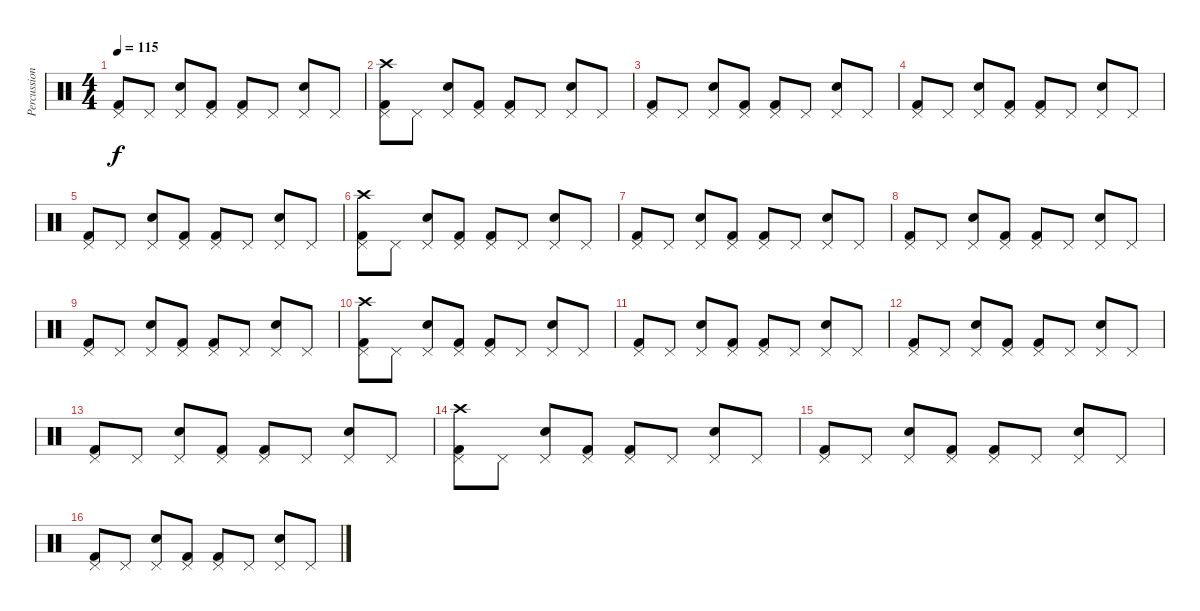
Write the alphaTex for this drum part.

\track ("Percussion" "Percussion") {instrument percussion}
\staff {score}
\articulation defaults
\ts (4 4)
\tempo 115
\clef neutral
\ks c
("Pedal Hi-Hat (hit)" "Kick (hit) 2").8{dy f} "Pedal Hi-Hat (hit)".8 ("Pedal Hi-Hat (hit)" "Snare (hit) 2").8 ("Pedal Hi-Hat (hit)" "Kick (hit) 2").8 ("Pedal Hi-Hat (hit)" "Kick (hit) 2").8 "Pedal Hi-Hat (hit)".8 ("Pedal Hi-Hat (hit)" "Snare (hit) 2").8 "Pedal Hi-Hat (hit)".8 |
("Crash high (hit)" "Pedal Hi-Hat (hit)" "Kick (hit) 2").8 "Pedal Hi-Hat (hit)".8 ("Pedal Hi-Hat (hit)" "Snare (hit) 2").8 ("Pedal Hi-Hat (hit)" "Kick (hit) 2").8 ("Pedal Hi-Hat (hit)" "Kick (hit) 2").8 "Pedal Hi-Hat (hit)".8 ("Pedal Hi-Hat (hit)" "Snare (hit) 2").8 "Pedal Hi-Hat (hit)".8 |
("Pedal Hi-Hat (hit)" "Kick (hit) 2").8 "Pedal Hi-Hat (hit)".8 ("Pedal Hi-Hat (hit)" "Snare (hit) 2").8 ("Pedal Hi-Hat (hit)" "Kick (hit) 2").8 ("Pedal Hi-Hat (hit)" "Kick (hit) 2").8 "Pedal Hi-Hat (hit)".8 ("Pedal Hi-Hat (hit)" "Snare (hit) 2").8 "Pedal Hi-Hat (hit)".8 |
("Pedal Hi-Hat (hit)" "Kick (hit) 2").8 "Pedal Hi-Hat (hit)".8 ("Pedal Hi-Hat (hit)" "Snare (hit) 2").8 ("Pedal Hi-Hat (hit)" "Kick (hit) 2").8 ("Pedal Hi-Hat (hit)" "Kick (hit) 2").8 "Pedal Hi-Hat (hit)".8 ("Pedal Hi-Hat (hit)" "Snare (hit) 2").8 "Pedal Hi-Hat (hit)".8 |
("Pedal Hi-Hat (hit)" "Kick (hit) 2").8 "Pedal Hi-Hat (hit)".8 ("Pedal Hi-Hat (hit)" "Snare (hit) 2").8 ("Pedal Hi-Hat (hit)" "Kick (hit) 2").8 ("Pedal Hi-Hat (hit)" "Kick (hit) 2").8 "Pedal Hi-Hat (hit)".8 ("Pedal Hi-Hat (hit)" "Snare (hit) 2").8 "Pedal Hi-Hat (hit)".8 |
("Crash high (hit)" "Pedal Hi-Hat (hit)" "Kick (hit) 2").8 "Pedal Hi-Hat (hit)".8 ("Pedal Hi-Hat (hit)" "Snare (hit) 2").8 ("Pedal Hi-Hat (hit)" "Kick (hit) 2").8 ("Pedal Hi-Hat (hit)" "Kick (hit) 2").8 "Pedal Hi-Hat (hit)".8 ("Pedal Hi-Hat (hit)" "Snare (hit) 2").8 "Pedal Hi-Hat (hit)".8 |
("Pedal Hi-Hat (hit)" "Kick (hit) 2").8 "Pedal Hi-Hat (hit)".8 ("Pedal Hi-Hat (hit)" "Snare (hit) 2").8 ("Pedal Hi-Hat (hit)" "Kick (hit) 2").8 ("Pedal Hi-Hat (hit)" "Kick (hit) 2").8 "Pedal Hi-Hat (hit)".8 ("Pedal Hi-Hat (hit)" "Snare (hit) 2").8 "Pedal Hi-Hat (hit)".8 |
("Pedal Hi-Hat (hit)" "Kick (hit) 2").8 "Pedal Hi-Hat (hit)".8 ("Pedal Hi-Hat (hit)" "Snare (hit) 2").8 ("Pedal Hi-Hat (hit)" "Kick (hit) 2").8 ("Pedal Hi-Hat (hit)" "Kick (hit) 2").8 "Pedal Hi-Hat (hit)".8 ("Pedal Hi-Hat (hit)" "Snare (hit) 2").8 "Pedal Hi-Hat (hit)".8 |
("Pedal Hi-Hat (hit)" "Kick (hit) 2").8 "Pedal Hi-Hat (hit)".8 ("Pedal Hi-Hat (hit)" "Snare (hit) 2").8 ("Pedal Hi-Hat (hit)" "Kick (hit) 2").8 ("Pedal Hi-Hat (hit)" "Kick (hit) 2").8 "Pedal Hi-Hat (hit)".8 ("Pedal Hi-Hat (hit)" "Snare (hit) 2").8 "Pedal Hi-Hat (hit)".8 |
("Crash high (hit)" "Pedal Hi-Hat (hit)" "Kick (hit) 2").8 "Pedal Hi-Hat (hit)".8 ("Pedal Hi-Hat (hit)" "Snare (hit) 2").8 ("Pedal Hi-Hat (hit)" "Kick (hit) 2").8 ("Pedal Hi-Hat (hit)" "Kick (hit) 2").8 "Pedal Hi-Hat (hit)".8 ("Pedal Hi-Hat (hit)" "Snare (hit) 2").8 "Pedal Hi-Hat (hit)".8 |
("Pedal Hi-Hat (hit)" "Kick (hit) 2").8 "Pedal Hi-Hat (hit)".8 ("Pedal Hi-Hat (hit)" "Snare (hit) 2").8 ("Pedal Hi-Hat (hit)" "Kick (hit) 2").8 ("Pedal Hi-Hat (hit)" "Kick (hit) 2").8 "Pedal Hi-Hat (hit)".8 ("Pedal Hi-Hat (hit)" "Snare (hit) 2").8 "Pedal Hi-Hat (hit)".8 |
("Pedal Hi-Hat (hit)" "Kick (hit) 2").8 "Pedal Hi-Hat (hit)".8 ("Pedal Hi-Hat (hit)" "Snare (hit) 2").8 ("Pedal Hi-Hat (hit)" "Kick (hit) 2").8 ("Pedal Hi-Hat (hit)" "Kick (hit) 2").8 "Pedal Hi-Hat (hit)".8 ("Pedal Hi-Hat (hit)" "Snare (hit) 2").8 "Pedal Hi-Hat (hit)".8 |
("Pedal Hi-Hat (hit)" "Kick (hit) 2").8 "Pedal Hi-Hat (hit)".8 ("Pedal Hi-Hat (hit)" "Snare (hit) 2").8 ("Pedal Hi-Hat (hit)" "Kick (hit) 2").8 ("Pedal Hi-Hat (hit)" "Kick (hit) 2").8 "Pedal Hi-Hat (hit)".8 ("Pedal Hi-Hat (hit)" "Snare (hit) 2").8 "Pedal Hi-Hat (hit)".8 |
("Crash high (hit)" "Pedal Hi-Hat (hit)" "Kick (hit) 2").8 "Pedal Hi-Hat (hit)".8 ("Pedal Hi-Hat (hit)" "Snare (hit) 2").8 ("Pedal Hi-Hat (hit)" "Kick (hit) 2").8 ("Pedal Hi-Hat (hit)" "Kick (hit) 2").8 "Pedal Hi-Hat (hit)".8 ("Pedal Hi-Hat (hit)" "Snare (hit) 2").8 "Pedal Hi-Hat (hit)".8 |
("Pedal Hi-Hat (hit)" "Kick (hit) 2").8 "Pedal Hi-Hat (hit)".8 ("Pedal Hi-Hat (hit)" "Snare (hit) 2").8 ("Pedal Hi-Hat (hit)" "Kick (hit) 2").8 ("Pedal Hi-Hat (hit)" "Kick (hit) 2").8 "Pedal Hi-Hat (hit)".8 ("Pedal Hi-Hat (hit)" "Snare (hit) 2").8 "Pedal Hi-Hat (hit)".8 |
("Pedal Hi-Hat (hit)" "Kick (hit) 2").8 "Pedal Hi-Hat (hit)".8 ("Pedal Hi-Hat (hit)" "Snare (hit) 2").8 ("Pedal Hi-Hat (hit)" "Kick (hit) 2").8 ("Pedal Hi-Hat (hit)" "Kick (hit) 2").8 "Pedal Hi-Hat (hit)".8 ("Pedal Hi-Hat (hit)" "Snare (hit) 2").8 "Pedal Hi-Hat (hit)".8
